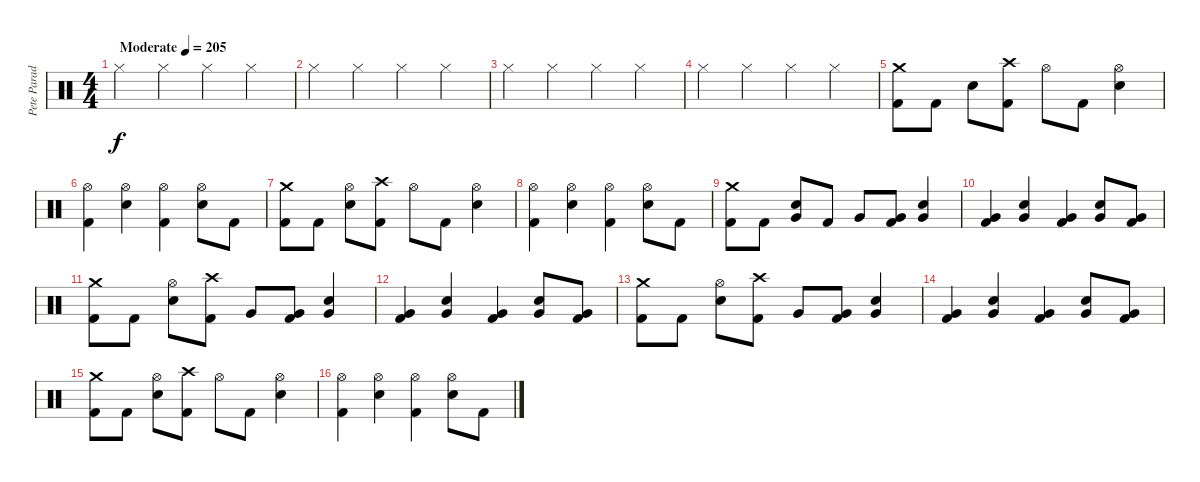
\track ("Pete Parada - Drums" "Pete Parad") {instrument percussion}
\staff {score}
\articulation defaults
\ts (4 4)
\tempo (205 "Moderate")
\clef neutral
\ks c "Hi-Hat (closed)".4{dy f} "Hi-Hat (closed)".4 "Hi-Hat (closed)".4 "Hi-Hat (closed)".4
|
"Hi-Hat (closed)".4 "Hi-Hat (closed)".4 "Hi-Hat (closed)".4 "Hi-Hat (closed)".4 |
"Hi-Hat (closed)".4 "Hi-Hat (closed)".4 "Hi-Hat (closed)".4 "Hi-Hat (closed)".4 |
"Hi-Hat (closed)".4 "Hi-Hat (closed)".4 "Hi-Hat (closed)".4 "Hi-Hat (closed)".4 |
("Crash medium (hit)" "Kick (hit) 2").8 "Kick (hit) 2".8 "Electric Snare (hit)".8 ("Crash high (hit)" "Kick (hit) 2").8 "Hi-Hat (open)".8 "Kick (hit) 2".8 ("Hi-Hat (open)" "Electric Snare (hit)").4 |
("Hi-Hat (open)" "Kick (hit) 2").4 ("Hi-Hat (open)" "Electric Snare (hit)").4 ("Hi-Hat (open)" "Kick (hit) 2").4 ("Hi-Hat (open)" "Electric Snare (hit)").8 "Kick (hit) 2".8 |
("Crash medium (hit)" "Kick (hit) 2").8 "Kick (hit) 2".8 ("Hi-Hat (open)" "Electric Snare (hit)").8 ("Crash high (hit)" "Kick (hit) 2").8 "Hi-Hat (open)".8 "Kick (hit) 2".8 ("Hi-Hat (open)" "Electric Snare (hit)").4 |
("Hi-Hat (open)" "Kick (hit) 2").4 ("Hi-Hat (open)" "Electric Snare (hit)").4 ("Hi-Hat (open)" "Kick (hit) 2").4 ("Hi-Hat (open)" "Electric Snare (hit)").8 "Kick (hit) 2".8 |
("Crash medium (hit)" "Kick (hit) 2").8 "Kick (hit) 2".8 ("Very Low Tom (hit)" "Electric Snare (hit)").8 "Kick (hit) 2".8 "Very Low Tom (hit)".8 ("Very Low Tom (hit)" "Kick (hit) 2").8 ("Very Low Tom (hit)" "Electric Snare (hit)").4 |
("Very Low Tom (hit)" "Kick (hit) 2").4 ("Very Low Tom (hit)" "Electric Snare (hit)").4 ("Very Low Tom (hit)" "Kick (hit) 2").4 ("Very Low Tom (hit)" "Electric Snare (hit)").8 ("Very Low Tom (hit)" "Kick (hit) 2").8 |
("Crash medium (hit)" "Kick (hit) 2").8 "Kick (hit) 2".8 ("Hi-Hat (open)" "Electric Snare (hit)").8 ("Crash high (hit)" "Kick (hit) 2").8 "Very Low Tom (hit)".8 ("Very Low Tom (hit)" "Kick (hit) 2").8 ("Very Low Tom (hit)" "Electric Snare (hit)").4 |
("Very Low Tom (hit)" "Kick (hit) 2").4 ("Very Low Tom (hit)" "Electric Snare (hit)").4 ("Very Low Tom (hit)" "Kick (hit) 2").4 ("Very Low Tom (hit)" "Electric Snare (hit)").8 ("Very Low Tom (hit)" "Kick (hit) 2").8 |
("Crash medium (hit)" "Kick (hit) 2").8 "Kick (hit) 2".8 ("Hi-Hat (open)" "Electric Snare (hit)").8 ("Crash high (hit)" "Kick (hit) 2").8 "Very Low Tom (hit)".8 ("Very Low Tom (hit)" "Kick (hit) 2").8 ("Very Low Tom (hit)" "Electric Snare (hit)").4 |
("Very Low Tom (hit)" "Kick (hit) 2").4 ("Very Low Tom (hit)" "Electric Snare (hit)").4 ("Very Low Tom (hit)" "Kick (hit) 2").4 ("Very Low Tom (hit)" "Electric Snare (hit)").8 ("Very Low Tom (hit)" "Kick (hit) 2").8 |
("Crash medium (hit)" "Kick (hit) 2").8 "Kick (hit) 2".8 ("Hi-Hat (open)" "Electric Snare (hit)").8 ("Crash high (hit)" "Kick (hit) 2").8 "Hi-Hat (open)".8 "Kick (hit) 2".8 ("Hi-Hat (open)" "Electric Snare (hit)").4 |
("Hi-Hat (open)" "Kick (hit) 2").4 ("Hi-Hat (open)" "Electric Snare (hit)").4 ("Hi-Hat (open)" "Kick (hit) 2").4 ("Hi-Hat (open)" "Electric Snare (hit)").8 "Kick (hit) 2".8
